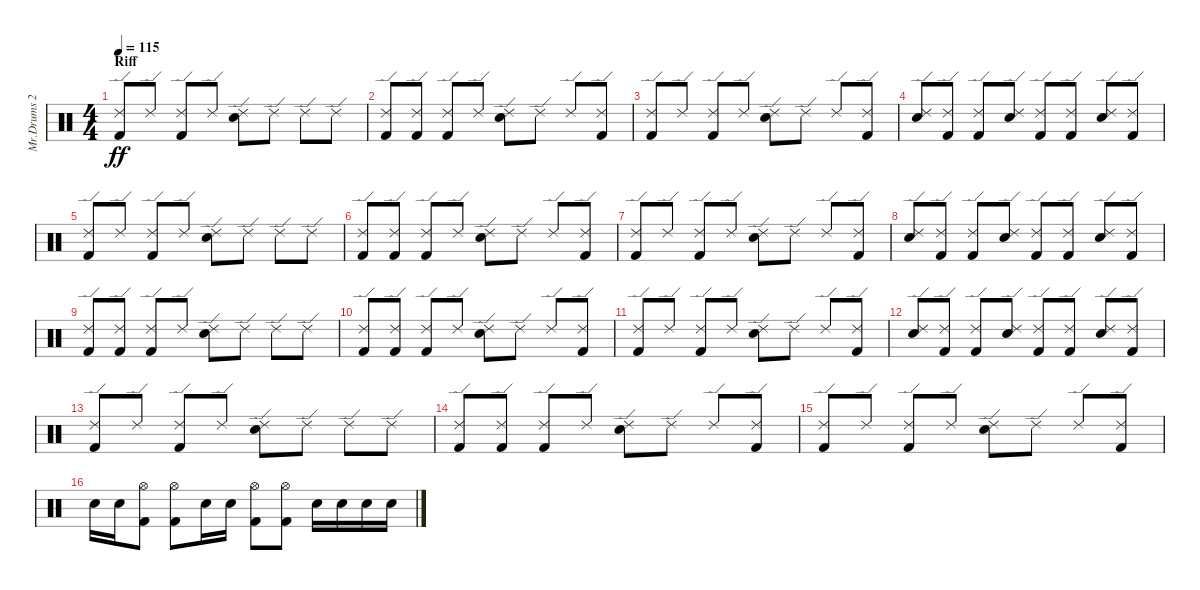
\track ("Mr.Drums 2" "Mr.Drums 2") {instrument percussion}
\staff {score}
\articulation defaults
\ts (4 4)
\section ("" "Riff")
\tempo 115
\clef neutral
\ks c
("Ride (edge) 2" "Kick (hit) 2").8{dy ff} "Ride (edge) 2".8 ("Ride (edge) 2" "Kick (hit) 2").8 "Ride (edge) 2".8 ("Ride (edge) 2" "Electric Snare (hit)").8 "Ride (edge) 2".8 "Ride (edge) 2".8 "Ride (edge) 2".8 |
("Ride (edge) 2" "Kick (hit) 2").8 ("Ride (edge) 2" "Kick (hit) 2").8 ("Ride (edge) 2" "Kick (hit) 2").8 "Ride (edge) 2".8 ("Ride (edge) 2" "Electric Snare (hit)").8 "Ride (edge) 2".8 "Ride (edge) 2".8 ("Ride (edge) 2" "Kick (hit) 2").8 |
("Ride (edge) 2" "Kick (hit) 2").8 "Ride (edge) 2".8 ("Ride (edge) 2" "Kick (hit) 2").8 "Ride (edge) 2".8 ("Ride (edge) 2" "Electric Snare (hit)").8 "Ride (edge) 2".8 "Ride (edge) 2".8 ("Ride (edge) 2" "Kick (hit) 2").8 |
("Ride (edge) 2" "Electric Snare (hit)").8 ("Ride (edge) 2" "Kick (hit) 2").8 ("Ride (edge) 2" "Kick (hit) 2").8 ("Ride (edge) 2" "Electric Snare (hit)").8 ("Ride (edge) 2" "Kick (hit) 2").8 ("Ride (edge) 2" "Kick (hit) 2").8 ("Ride (edge) 2" "Electric Snare (hit)").8 ("Ride (edge) 2" "Kick (hit) 2").8 |
("Ride (edge) 2" "Kick (hit) 2").8 "Ride (edge) 2".8 ("Ride (edge) 2" "Kick (hit) 2").8 "Ride (edge) 2".8 ("Ride (edge) 2" "Electric Snare (hit)").8 "Ride (edge) 2".8 "Ride (edge) 2".8 "Ride (edge) 2".8 |
("Ride (edge) 2" "Kick (hit) 2").8 ("Ride (edge) 2" "Kick (hit) 2").8 ("Ride (edge) 2" "Kick (hit) 2").8 "Ride (edge) 2".8 ("Ride (edge) 2" "Electric Snare (hit)").8 "Ride (edge) 2".8 "Ride (edge) 2".8 ("Ride (edge) 2" "Kick (hit) 2").8 |
("Ride (edge) 2" "Kick (hit) 2").8 "Ride (edge) 2".8 ("Ride (edge) 2" "Kick (hit) 2").8 "Ride (edge) 2".8 ("Ride (edge) 2" "Electric Snare (hit)").8 "Ride (edge) 2".8 "Ride (edge) 2".8 ("Ride (edge) 2" "Kick (hit) 2").8 |
("Ride (edge) 2" "Electric Snare (hit)").8 ("Ride (edge) 2" "Kick (hit) 2").8 ("Ride (edge) 2" "Kick (hit) 2").8 ("Ride (edge) 2" "Electric Snare (hit)").8 ("Ride (edge) 2" "Kick (hit) 2").8 ("Ride (edge) 2" "Kick (hit) 2").8 ("Ride (edge) 2" "Electric Snare (hit)").8 ("Ride (edge) 2" "Kick (hit) 2").8 |
("Ride (edge) 2" "Kick (hit) 2").8 ("Ride (edge) 2" "Kick (hit) 2").8 ("Ride (edge) 2" "Kick (hit) 2").8 "Ride (edge) 2".8 ("Ride (edge) 2" "Electric Snare (hit)").8 "Ride (edge) 2".8 "Ride (edge) 2".8 "Ride (edge) 2".8 |
("Ride (edge) 2" "Kick (hit) 2").8 ("Ride (edge) 2" "Kick (hit) 2").8 ("Ride (edge) 2" "Kick (hit) 2").8 "Ride (edge) 2".8 ("Ride (edge) 2" "Electric Snare (hit)").8 "Ride (edge) 2".8 "Ride (edge) 2".8 ("Ride (edge) 2" "Kick (hit) 2").8 |
("Ride (edge) 2" "Kick (hit) 2").8 "Ride (edge) 2".8 ("Ride (edge) 2" "Kick (hit) 2").8 "Ride (edge) 2".8 ("Ride (edge) 2" "Electric Snare (hit)").8 "Ride (edge) 2".8 "Ride (edge) 2".8 ("Ride (edge) 2" "Kick (hit) 2").8 |
("Ride (edge) 2" "Electric Snare (hit)").8 ("Ride (edge) 2" "Kick (hit) 2").8 ("Ride (edge) 2" "Kick (hit) 2").8 ("Ride (edge) 2" "Electric Snare (hit)").8 ("Ride (edge) 2" "Kick (hit) 2").8 ("Ride (edge) 2" "Kick (hit) 2").8 ("Ride (edge) 2" "Electric Snare (hit)").8 ("Ride (edge) 2" "Kick (hit) 2").8 |
("Ride (edge) 2" "Kick (hit) 2").8 "Ride (edge) 2".8 ("Ride (edge) 2" "Kick (hit) 2").8 "Ride (edge) 2".8 ("Ride (edge) 2" "Electric Snare (hit)").8 "Ride (edge) 2".8 "Ride (edge) 2".8 "Ride (edge) 2".8 |
("Ride (edge) 2" "Kick (hit) 2").8 ("Ride (edge) 2" "Kick (hit) 2").8 ("Ride (edge) 2" "Kick (hit) 2").8 "Ride (edge) 2".8 ("Ride (edge) 2" "Electric Snare (hit)").8 "Ride (edge) 2".8 "Ride (edge) 2".8 ("Ride (edge) 2" "Kick (hit) 2").8 |
("Ride (edge) 2" "Kick (hit) 2").8 "Ride (edge) 2".8 ("Ride (edge) 2" "Kick (hit) 2").8 "Ride (edge) 2".8 ("Ride (edge) 2" "Electric Snare (hit)").8 "Ride (edge) 2".8 "Ride (edge) 2".8 ("Ride (edge) 2" "Kick (hit) 2").8 |
"Electric Snare (hit)".16 "Electric Snare (hit)".16 ("Hi-Hat (open)" "Kick (hit) 2").8 ("Hi-Hat (open)" "Kick (hit) 2").8 "Electric Snare (hit)".16 "Electric Snare (hit)".16 ("Hi-Hat (open)" "Kick (hit) 2").8 ("Hi-Hat (open)" "Kick (hit) 2").8 "Electric Snare (hit)".16 "Electric Snare (hit)".16 "Electric Snare (hit)".16 "Electric Snare (hit)".16
